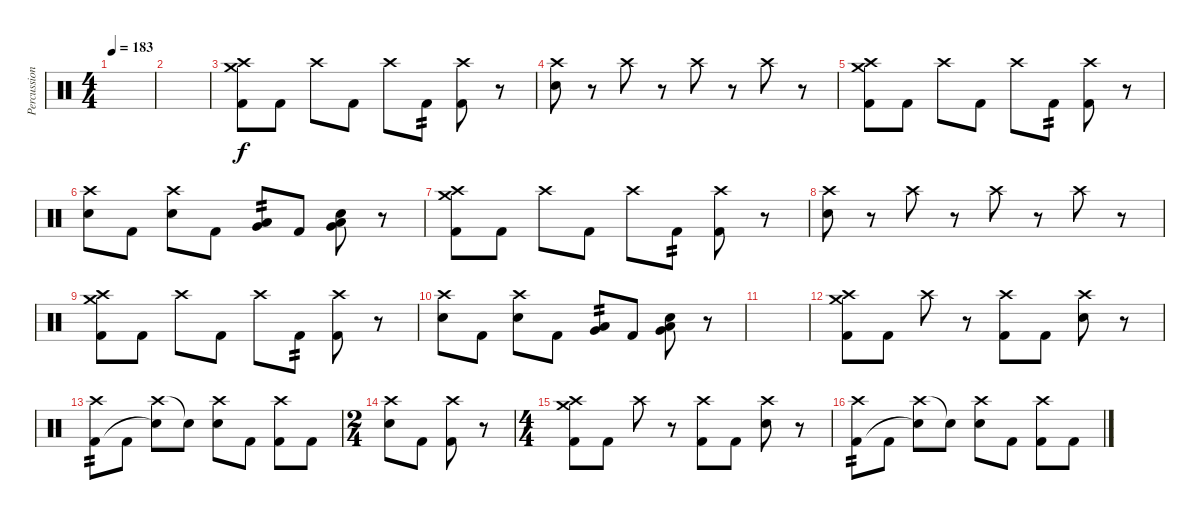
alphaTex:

\track ("Percussion" "Percussion") {instrument percussion}
\staff {score}
\articulation defaults
\ts (4 4)
\tempo 183
\clef neutral
\ks c
|
|
("Kick (hit) 2" "Crash medium (hit)" "Crash high (hit)").8 "Kick (hit) 2".8 "Crash high (hit)".8 "Kick (hit) 2".8 "Crash high (hit)".8 "Kick (hit) 2".8{tp 2} ("Kick (hit) 2" "Crash high (hit)").8 r.8 |
("Crash high (hit)" "Snare (hit) 2").8 r.8 "Crash high (hit)".8 r.8 "Crash high (hit)".8 r.8 "Crash high (hit)".8 r.8 |
("Kick (hit) 2" "Crash medium (hit)" "Crash high (hit)").8 "Kick (hit) 2".8 "Crash high (hit)".8 "Kick (hit) 2".8 "Crash high (hit)".8 "Kick (hit) 2".8{tp 2} ("Kick (hit) 2" "Crash high (hit)").8 r.8 |
("Crash high (hit)" "Snare (hit) 2").8 "Kick (hit) 2".8 ("Snare (hit) 2" "Crash high (hit)").8 "Kick (hit) 2".8 ("Very Low Tom (hit)" "Low Floor Tom (hit)").8{tp 2} "Kick (hit) 2".8 ("Snare (hit) 2" "Low Floor Tom (hit)" "Very Low Tom (hit)").8 r.8 |
("Kick (hit) 2" "Crash medium (hit)" "Crash high (hit)").8 "Kick (hit) 2".8 "Crash high (hit)".8 "Kick (hit) 2".8 "Crash high (hit)".8 "Kick (hit) 2".8{tp 2} ("Kick (hit) 2" "Crash high (hit)").8 r.8 |
("Crash high (hit)" "Snare (hit) 2").8 r.8 "Crash high (hit)".8 r.8 "Crash high (hit)".8 r.8 "Crash high (hit)".8 r.8 |
("Kick (hit) 2" "Crash medium (hit)" "Crash high (hit)").8 "Kick (hit) 2".8 "Crash high (hit)".8 "Kick (hit) 2".8 "Crash high (hit)".8 "Kick (hit) 2".8{tp 2} ("Kick (hit) 2" "Crash high (hit)").8 r.8 |
("Crash high (hit)" "Snare (hit) 2").8 "Kick (hit) 2".8 ("Snare (hit) 2" "Crash high (hit)").8 "Kick (hit) 2".8 ("Very Low Tom (hit)" "Low Floor Tom (hit)").8{tp 2} "Kick (hit) 2".8 ("Snare (hit) 2" "Low Floor Tom (hit)" "Very Low Tom (hit)").8 r.8 |
|
("Crash high (hit)" "Kick (hit) 2" "Crash medium (hit)").8 "Kick (hit) 2".8 "Crash high (hit)".8 r.8 ("Kick (hit) 2" "Crash high (hit)").8 "Kick (hit) 2".8 ("Snare (hit) 2" "Crash high (hit)").8 r.8 |
("Crash high (hit)" "Kick (hit) 2").8{tp 2} "Kick (hit) 2".8 ("Crash high (hit)" "Snare (hit)"{t}).8 "Snare (hit)"{t}.8 ("Crash high (hit)" "Snare (hit) 2").8 "Kick (hit) 2".8 ("Crash high (hit)" "Kick (hit) 2").8 "Kick (hit) 2".8 |
\ts (2 4)
("Crash high (hit)" "Snare (hit) 2").8 "Kick (hit) 2".8 ("Crash high (hit)" "Kick (hit) 2").8 r.8 |
\ts (4 4)
("Crash high (hit)" "Kick (hit) 2" "Crash medium (hit)").8 "Kick (hit) 2".8 "Crash high (hit)".8 r.8 ("Kick (hit) 2" "Crash high (hit)").8 "Kick (hit) 2".8 ("Snare (hit) 2" "Crash high (hit)").8 r.8 |
("Crash high (hit)" "Kick (hit) 2").8{tp 2} "Kick (hit) 2".8 ("Crash high (hit)" "Snare (hit)"{t}).8 "Snare (hit)"{t}.8 ("Crash high (hit)" "Snare (hit) 2").8 "Kick (hit) 2".8 ("Crash high (hit)" "Kick (hit) 2").8 "Kick (hit) 2".8
